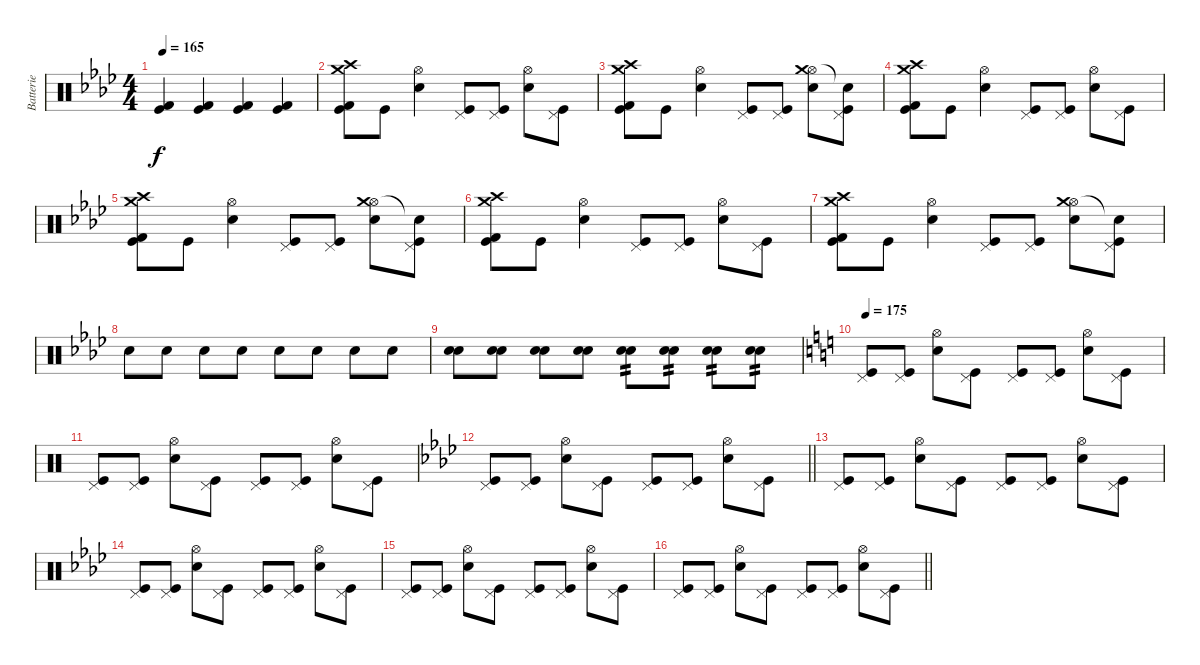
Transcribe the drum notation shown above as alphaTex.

\track ("Batterie" "Batterie") {instrument percussion}
\staff {score}
\articulation defaults
\ts (4 4)
\tempo 165
\clef neutral
\ks ab
("Kick (hit)" "Kick (hit) 2").4{dy f} ("Kick (hit)" "Kick (hit) 2").4 ("Kick (hit)" "Kick (hit) 2").4 ("Kick (hit)" "Kick (hit) 2").4 |
("Kick (hit)" "Kick (hit) 2" "Crash high (hit)" "Crash medium (hit)").8 "Kick (hit)".8 ("Snare (hit) 2" "Hi-Hat (open)").4 ("Kick (hit)" "Pedal Hi-Hat (hit)").8 ("Kick (hit)" "Pedal Hi-Hat (hit)").8 ("Snare (hit) 2" "Hi-Hat (open)").8 ("Kick (hit)" "Pedal Hi-Hat (hit)").8 |
("Kick (hit)" "Kick (hit) 2" "Crash high (hit)" "Crash medium (hit)").8 "Kick (hit)".8 ("Snare (hit) 2" "Hi-Hat (open)").4 ("Kick (hit)" "Pedal Hi-Hat (hit)").8 ("Kick (hit)" "Pedal Hi-Hat (hit)").8 ("Snare (hit) 2" "Hi-Hat (open)" "Crash medium (hit)").8 ("Kick (hit)" "Pedal Hi-Hat (hit)" "Snare (hit)"{t}).8 |
("Kick (hit)" "Kick (hit) 2" "Crash high (hit)" "Crash medium (hit)").8 "Kick (hit)".8 ("Snare (hit) 2" "Hi-Hat (open)").4 ("Kick (hit)" "Pedal Hi-Hat (hit)").8 ("Kick (hit)" "Pedal Hi-Hat (hit)").8 ("Snare (hit) 2" "Hi-Hat (open)").8 ("Kick (hit)" "Pedal Hi-Hat (hit)").8 |
("Kick (hit)" "Kick (hit) 2" "Crash high (hit)" "Crash medium (hit)").8 "Kick (hit)".8 ("Snare (hit) 2" "Hi-Hat (open)").4 ("Kick (hit)" "Pedal Hi-Hat (hit)").8 ("Kick (hit)" "Pedal Hi-Hat (hit)").8 ("Snare (hit) 2" "Hi-Hat (open)" "Crash medium (hit)").8 ("Kick (hit)" "Pedal Hi-Hat (hit)" "Snare (hit)"{t}).8 |
("Kick (hit)" "Kick (hit) 2" "Crash high (hit)" "Crash medium (hit)").8 "Kick (hit)".8 ("Snare (hit) 2" "Hi-Hat (open)").4 ("Kick (hit)" "Pedal Hi-Hat (hit)").8 ("Kick (hit)" "Pedal Hi-Hat (hit)").8 ("Snare (hit) 2" "Hi-Hat (open)").8 ("Kick (hit)" "Pedal Hi-Hat (hit)").8 |
("Kick (hit)" "Kick (hit) 2" "Crash high (hit)" "Crash medium (hit)").8 "Kick (hit)".8 ("Snare (hit) 2" "Hi-Hat (open)").4 ("Kick (hit)" "Pedal Hi-Hat (hit)").8 ("Kick (hit)" "Pedal Hi-Hat (hit)").8 ("Snare (hit) 2" "Hi-Hat (open)" "Crash medium (hit)").8 ("Kick (hit)" "Pedal Hi-Hat (hit)" "Snare (hit)"{t}).8 |
"Electric Snare (hit)".8 "Electric Snare (hit)".8 "Electric Snare (hit)".8 "Electric Snare (hit)".8 "Electric Snare (hit)".8 "Electric Snare (hit)".8 "Electric Snare (hit)".8 "Electric Snare (hit)".8 |
("Snare (hit) 2" "Electric Snare (hit)").8 ("Snare (hit) 2" "Electric Snare (hit)").8 ("Snare (hit) 2" "Electric Snare (hit)").8 ("Snare (hit) 2" "Electric Snare (hit)").8 ("Snare (hit) 2" "Electric Snare (hit)").8{tp 2} ("Snare (hit) 2" "Electric Snare (hit)").8{tp 2} ("Snare (hit) 2" "Electric Snare (hit)").8{tp 2} ("Snare (hit) 2" "Electric Snare (hit)").8{tp 2} |
\tempo 175
\ks c
("Kick (hit)" "Pedal Hi-Hat (hit)").8 ("Kick (hit)" "Pedal Hi-Hat (hit)").8 ("Snare (hit) 2" "Hi-Hat (open)").8 ("Kick (hit)" "Pedal Hi-Hat (hit)").8 ("Kick (hit)" "Pedal Hi-Hat (hit)").8 ("Kick (hit)" "Pedal Hi-Hat (hit)").8 ("Snare (hit) 2" "Hi-Hat (open)").8 ("Kick (hit)" "Pedal Hi-Hat (hit)").8 |
("Kick (hit)" "Pedal Hi-Hat (hit)").8 ("Kick (hit)" "Pedal Hi-Hat (hit)").8 ("Snare (hit) 2" "Hi-Hat (open)").8 ("Kick (hit)" "Pedal Hi-Hat (hit)").8 ("Kick (hit)" "Pedal Hi-Hat (hit)").8 ("Kick (hit)" "Pedal Hi-Hat (hit)").8 ("Snare (hit) 2" "Hi-Hat (open)").8 ("Kick (hit)" "Pedal Hi-Hat (hit)").8 |
\barLineRight lightlight
\ks ab
("Kick (hit)" "Pedal Hi-Hat (hit)").8 ("Kick (hit)" "Pedal Hi-Hat (hit)").8 ("Snare (hit) 2" "Hi-Hat (open)").8 ("Kick (hit)" "Pedal Hi-Hat (hit)").8 ("Kick (hit)" "Pedal Hi-Hat (hit)").8 ("Kick (hit)" "Pedal Hi-Hat (hit)").8 ("Snare (hit) 2" "Hi-Hat (open)").8 ("Kick (hit)" "Pedal Hi-Hat (hit)").8 |
("Kick (hit)" "Pedal Hi-Hat (hit)").8 ("Kick (hit)" "Pedal Hi-Hat (hit)").8 ("Snare (hit) 2" "Hi-Hat (open)").8 ("Kick (hit)" "Pedal Hi-Hat (hit)").8 ("Kick (hit)" "Pedal Hi-Hat (hit)").8 ("Kick (hit)" "Pedal Hi-Hat (hit)").8 ("Snare (hit) 2" "Hi-Hat (open)").8 ("Kick (hit)" "Pedal Hi-Hat (hit)").8 |
("Kick (hit)" "Pedal Hi-Hat (hit)").8 ("Kick (hit)" "Pedal Hi-Hat (hit)").8 ("Snare (hit) 2" "Hi-Hat (open)").8 ("Kick (hit)" "Pedal Hi-Hat (hit)").8 ("Kick (hit)" "Pedal Hi-Hat (hit)").8 ("Kick (hit)" "Pedal Hi-Hat (hit)").8 ("Snare (hit) 2" "Hi-Hat (open)").8 ("Kick (hit)" "Pedal Hi-Hat (hit)").8 |
("Kick (hit)" "Pedal Hi-Hat (hit)").8 ("Kick (hit)" "Pedal Hi-Hat (hit)").8 ("Snare (hit) 2" "Hi-Hat (open)").8 ("Kick (hit)" "Pedal Hi-Hat (hit)").8 ("Kick (hit)" "Pedal Hi-Hat (hit)").8 ("Kick (hit)" "Pedal Hi-Hat (hit)").8 ("Snare (hit) 2" "Hi-Hat (open)").8 ("Kick (hit)" "Pedal Hi-Hat (hit)").8 |
\barLineRight lightlight
("Kick (hit)" "Pedal Hi-Hat (hit)").8 ("Kick (hit)" "Pedal Hi-Hat (hit)").8 ("Snare (hit) 2" "Hi-Hat (open)").8 ("Kick (hit)" "Pedal Hi-Hat (hit)").8 ("Kick (hit)" "Pedal Hi-Hat (hit)").8 ("Kick (hit)" "Pedal Hi-Hat (hit)").8 ("Snare (hit) 2" "Hi-Hat (open)").8 ("Kick (hit)" "Pedal Hi-Hat (hit)").8
